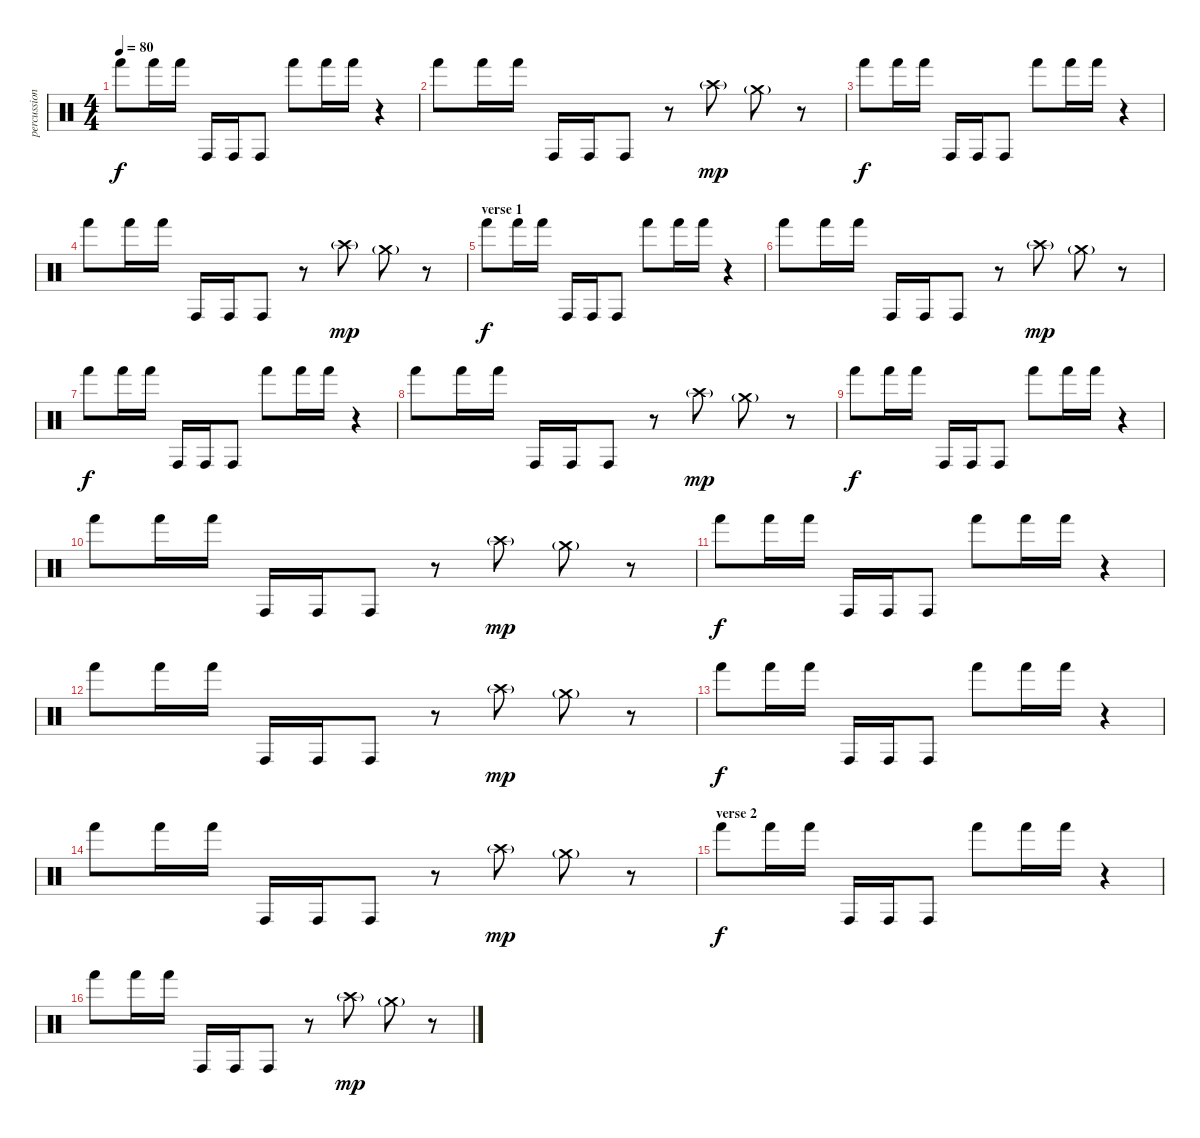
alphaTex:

\track ("percussion" "percussion") {instrument percussion}
\staff {score}
\articulation defaults
\ts (4 4)
\tempo 80
\clef neutral
\ks c "Hand (hit)".8{dy f} "Hand (hit)".16 "Hand (hit)".16 "Conga high (hit)".16 "Conga high (hit)".16 "Conga high (hit)".8 "Hand (hit)".8 "Hand (hit)".16 "Hand (hit)".16
r.4 |
"Hand (hit)".8 "Hand (hit)".16 "Hand (hit)".16 "Conga high (hit)".16 "Conga high (hit)".16 "Conga high (hit)".8 r.8 "Crash high (hit)"{g}.8{dy mp} "Crash medium (hit)"{g}.8 r.8 |
"Hand (hit)".8{dy f} "Hand (hit)".16 "Hand (hit)".16 "Conga high (hit)".16 "Conga high (hit)".16 "Conga high (hit)".8 "Hand (hit)".8 "Hand (hit)".16 "Hand (hit)".16 r.4 |
"Hand (hit)".8 "Hand (hit)".16 "Hand (hit)".16 "Conga high (hit)".16 "Conga high (hit)".16 "Conga high (hit)".8 r.8 "Crash high (hit)"{g}.8{dy mp} "Crash medium (hit)"{g}.8 r.8 |
\section ("" "verse 1")
"Hand (hit)".8{dy f} "Hand (hit)".16 "Hand (hit)".16 "Conga high (hit)".16 "Conga high (hit)".16 "Conga high (hit)".8 "Hand (hit)".8 "Hand (hit)".16 "Hand (hit)".16 r.4 |
"Hand (hit)".8 "Hand (hit)".16 "Hand (hit)".16 "Conga high (hit)".16 "Conga high (hit)".16 "Conga high (hit)".8 r.8 "Crash high (hit)"{g}.8{dy mp} "Crash medium (hit)"{g}.8 r.8 |
"Hand (hit)".8{dy f} "Hand (hit)".16 "Hand (hit)".16 "Conga high (hit)".16 "Conga high (hit)".16 "Conga high (hit)".8 "Hand (hit)".8 "Hand (hit)".16 "Hand (hit)".16 r.4 |
"Hand (hit)".8 "Hand (hit)".16 "Hand (hit)".16 "Conga high (hit)".16 "Conga high (hit)".16 "Conga high (hit)".8 r.8 "Crash high (hit)"{g}.8{dy mp} "Crash medium (hit)"{g}.8 r.8 |
"Hand (hit)".8{dy f} "Hand (hit)".16 "Hand (hit)".16 "Conga high (hit)".16 "Conga high (hit)".16 "Conga high (hit)".8 "Hand (hit)".8 "Hand (hit)".16 "Hand (hit)".16 r.4 |
"Hand (hit)".8 "Hand (hit)".16 "Hand (hit)".16 "Conga high (hit)".16 "Conga high (hit)".16 "Conga high (hit)".8 r.8 "Crash high (hit)"{g}.8{dy mp} "Crash medium (hit)"{g}.8 r.8 |
"Hand (hit)".8{dy f} "Hand (hit)".16 "Hand (hit)".16 "Conga high (hit)".16 "Conga high (hit)".16 "Conga high (hit)".8 "Hand (hit)".8 "Hand (hit)".16 "Hand (hit)".16 r.4 |
"Hand (hit)".8 "Hand (hit)".16 "Hand (hit)".16 "Conga high (hit)".16 "Conga high (hit)".16 "Conga high (hit)".8 r.8 "Crash high (hit)"{g}.8{dy mp} "Crash medium (hit)"{g}.8 r.8 |
"Hand (hit)".8{dy f} "Hand (hit)".16 "Hand (hit)".16 "Conga high (hit)".16 "Conga high (hit)".16 "Conga high (hit)".8 "Hand (hit)".8 "Hand (hit)".16 "Hand (hit)".16 r.4 |
"Hand (hit)".8 "Hand (hit)".16 "Hand (hit)".16 "Conga high (hit)".16 "Conga high (hit)".16 "Conga high (hit)".8 r.8 "Crash high (hit)"{g}.8{dy mp} "Crash medium (hit)"{g}.8 r.8 |
\section ("" "verse 2")
"Hand (hit)".8{dy f} "Hand (hit)".16 "Hand (hit)".16 "Conga high (hit)".16 "Conga high (hit)".16 "Conga high (hit)".8 "Hand (hit)".8 "Hand (hit)".16 "Hand (hit)".16 r.4 |
"Hand (hit)".8 "Hand (hit)".16 "Hand (hit)".16 "Conga high (hit)".16 "Conga high (hit)".16 "Conga high (hit)".8 r.8 "Crash high (hit)"{g}.8{dy mp} "Crash medium (hit)"{g}.8 r.8
